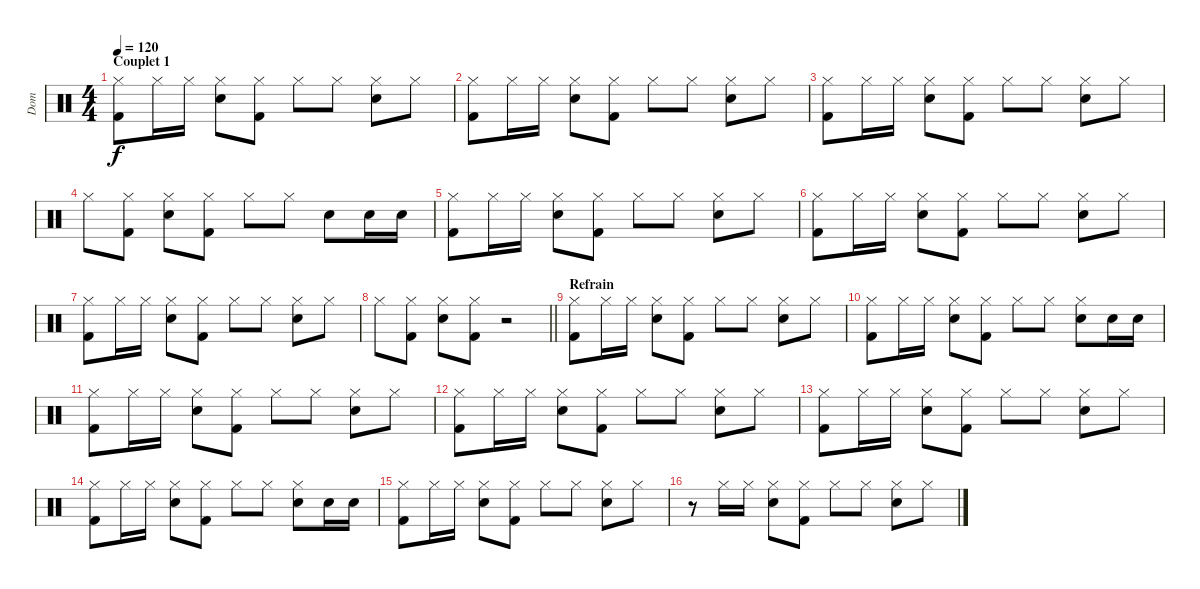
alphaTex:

\track ("Dom" "Dom") {instrument percussion}
\staff {score}
\articulation defaults
\ts (4 4)
\section ("" "Couplet 1")
\tempo 120
\clef neutral
\ks c
("Kick (hit) 2" "Hi-Hat (closed)").8{dy f} "Hi-Hat (closed)".16 "Hi-Hat (closed)".16 ("Snare (hit) 2" "Hi-Hat (closed)").8 ("Kick (hit) 2" "Hi-Hat (closed)").8 "Hi-Hat (closed)".8 "Hi-Hat (closed)".8 ("Snare (hit) 2" "Hi-Hat (closed)").8 "Hi-Hat (closed)".8 |
("Kick (hit) 2" "Hi-Hat (closed)").8 "Hi-Hat (closed)".16 "Hi-Hat (closed)".16 ("Snare (hit) 2" "Hi-Hat (closed)").8 ("Kick (hit) 2" "Hi-Hat (closed)").8 "Hi-Hat (closed)".8 "Hi-Hat (closed)".8 ("Snare (hit) 2" "Hi-Hat (closed)").8 "Hi-Hat (closed)".8 |
("Kick (hit) 2" "Hi-Hat (closed)").8 "Hi-Hat (closed)".16 "Hi-Hat (closed)".16 ("Snare (hit) 2" "Hi-Hat (closed)").8 ("Kick (hit) 2" "Hi-Hat (closed)").8 "Hi-Hat (closed)".8 "Hi-Hat (closed)".8 ("Snare (hit) 2" "Hi-Hat (closed)").8 "Hi-Hat (closed)".8 |
"Hi-Hat (closed)".8 ("Kick (hit) 2" "Hi-Hat (closed)").8 ("Snare (hit) 2" "Hi-Hat (closed)").8 ("Kick (hit) 2" "Hi-Hat (closed)").8 "Hi-Hat (closed)".8 "Hi-Hat (closed)".8 "Snare (hit) 2".8 "Snare (hit) 2".16 "Snare (hit) 2".16 |
("Kick (hit) 2" "Hi-Hat (closed)").8 "Hi-Hat (closed)".16 "Hi-Hat (closed)".16 ("Snare (hit) 2" "Hi-Hat (closed)").8 ("Kick (hit) 2" "Hi-Hat (closed)").8 "Hi-Hat (closed)".8 "Hi-Hat (closed)".8 ("Snare (hit) 2" "Hi-Hat (closed)").8 "Hi-Hat (closed)".8 |
("Kick (hit) 2" "Hi-Hat (closed)").8 "Hi-Hat (closed)".16 "Hi-Hat (closed)".16 ("Snare (hit) 2" "Hi-Hat (closed)").8 ("Kick (hit) 2" "Hi-Hat (closed)").8 "Hi-Hat (closed)".8 "Hi-Hat (closed)".8 ("Snare (hit) 2" "Hi-Hat (closed)").8 "Hi-Hat (closed)".8 |
("Kick (hit) 2" "Hi-Hat (closed)").8 "Hi-Hat (closed)".16 "Hi-Hat (closed)".16 ("Snare (hit) 2" "Hi-Hat (closed)").8 ("Kick (hit) 2" "Hi-Hat (closed)").8 "Hi-Hat (closed)".8 "Hi-Hat (closed)".8 ("Snare (hit) 2" "Hi-Hat (closed)").8 "Hi-Hat (closed)".8 |
\barLineRight lightlight "Hi-Hat (closed)".8
("Kick (hit) 2" "Hi-Hat (closed)").8 ("Snare (hit) 2" "Hi-Hat (closed)").8 ("Kick (hit) 2" "Hi-Hat (closed)").8 r.2 |
\section ("" "Refrain")
("Kick (hit) 2" "Hi-Hat (closed)").8 "Hi-Hat (closed)".16 "Hi-Hat (closed)".16 ("Snare (hit) 2" "Hi-Hat (closed)").8 ("Kick (hit) 2" "Hi-Hat (closed)").8 "Hi-Hat (closed)".8 "Hi-Hat (closed)".8 ("Snare (hit) 2" "Hi-Hat (closed)").8 "Hi-Hat (closed)".8 |
("Kick (hit) 2" "Hi-Hat (closed)").8 "Hi-Hat (closed)".16 "Hi-Hat (closed)".16 ("Snare (hit) 2" "Hi-Hat (closed)").8 ("Kick (hit) 2" "Hi-Hat (closed)").8 "Hi-Hat (closed)".8 "Hi-Hat (closed)".8 ("Snare (hit) 2" "Hi-Hat (closed)").8 "Snare (hit) 2".16 "Snare (hit) 2".16 |
("Kick (hit) 2" "Hi-Hat (closed)").8 "Hi-Hat (closed)".16 "Hi-Hat (closed)".16 ("Snare (hit) 2" "Hi-Hat (closed)").8 ("Kick (hit) 2" "Hi-Hat (closed)").8 "Hi-Hat (closed)".8 "Hi-Hat (closed)".8 ("Snare (hit) 2" "Hi-Hat (closed)").8 "Hi-Hat (closed)".8 |
("Kick (hit) 2" "Hi-Hat (closed)").8 "Hi-Hat (closed)".16 "Hi-Hat (closed)".16 ("Snare (hit) 2" "Hi-Hat (closed)").8 ("Kick (hit) 2" "Hi-Hat (closed)").8 "Hi-Hat (closed)".8 "Hi-Hat (closed)".8 ("Snare (hit) 2" "Hi-Hat (closed)").8 "Hi-Hat (closed)".8 |
("Kick (hit) 2" "Hi-Hat (closed)").8 "Hi-Hat (closed)".16 "Hi-Hat (closed)".16 ("Snare (hit) 2" "Hi-Hat (closed)").8 ("Kick (hit) 2" "Hi-Hat (closed)").8 "Hi-Hat (closed)".8 "Hi-Hat (closed)".8 ("Snare (hit) 2" "Hi-Hat (closed)").8 "Hi-Hat (closed)".8 |
("Kick (hit) 2" "Hi-Hat (closed)").8 "Hi-Hat (closed)".16 "Hi-Hat (closed)".16 ("Snare (hit) 2" "Hi-Hat (closed)").8 ("Kick (hit) 2" "Hi-Hat (closed)").8 "Hi-Hat (closed)".8 "Hi-Hat (closed)".8 ("Snare (hit) 2" "Hi-Hat (closed)").8 "Snare (hit) 2".16 "Snare (hit) 2".16 |
("Kick (hit) 2" "Hi-Hat (closed)").8 "Hi-Hat (closed)".16 "Hi-Hat (closed)".16 ("Snare (hit) 2" "Hi-Hat (closed)").8 ("Kick (hit) 2" "Hi-Hat (closed)").8 "Hi-Hat (closed)".8 "Hi-Hat (closed)".8 ("Snare (hit) 2" "Hi-Hat (closed)").8 "Hi-Hat (closed)".8 |
r.8 "Hi-Hat (closed)".16 "Hi-Hat (closed)".16 ("Snare (hit) 2" "Hi-Hat (closed)").8 ("Kick (hit) 2" "Hi-Hat (closed)").8 "Hi-Hat (closed)".8 "Hi-Hat (closed)".8 ("Snare (hit) 2" "Hi-Hat (closed)").8 "Hi-Hat (closed)".8
